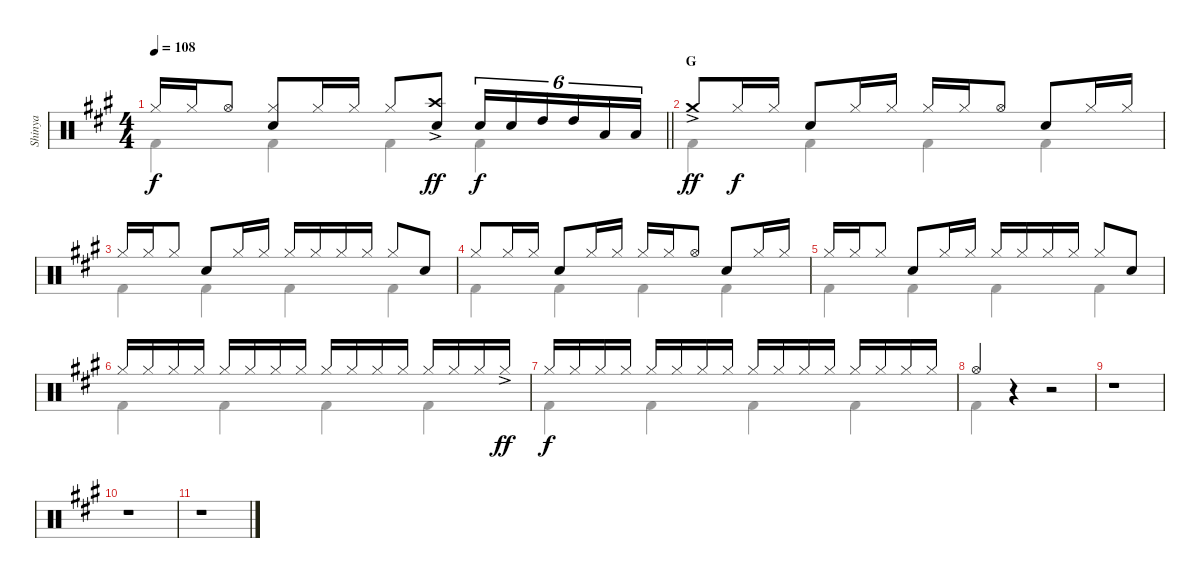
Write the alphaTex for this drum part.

\track ("Shinya" "Shinya") {instrument percussion}
\staff {score}
\articulation defaults
\voice
\ts (4 4)
\tempo 108
\clef neutral
\barLineRight lightlight
\ks f#minor "Hi-Hat (closed)".16{dy f} "Hi-Hat (closed)".16 "Hi-Hat (open)".8
("Hi-Hat (closed)" "Snare (hit) 2").8 "Hi-Hat (closed)".16 "Hi-Hat (closed)".16 "Hi-Hat (closed)".8 ("Crash high (hit)"{ac} "Snare (hit) 2").8{dy ff} "Snare (hit) 2".16{tu (6 4) dy f} "Snare (hit) 2".16{tu (6 4)} "High Tom (hit)".16{tu (6 4)} "High Tom (hit)".16{tu (6 4)} "Low Tom (hit)".16{tu (6 4)} "Low Tom (hit)".16{tu (6 4)} |
\section ("" "G")
"Crash medium (hit)"{ac}.8{dy ff volume 10} "Hi-Hat (closed)".16{dy f} "Hi-Hat (closed)".16 "Snare (hit) 2".8 "Hi-Hat (closed)".16 "Hi-Hat (closed)".16 "Hi-Hat (closed)".16 "Hi-Hat (closed)".16 "Hi-Hat (open)".8 "Snare (hit) 2".8 "Hi-Hat (closed)".16 "Hi-Hat (closed)".16 |
"Hi-Hat (closed)".16 "Hi-Hat (closed)".16 "Hi-Hat (closed)".8 "Snare (hit) 2".8 "Hi-Hat (closed)".16 "Hi-Hat (closed)".16 "Hi-Hat (closed)".16 "Hi-Hat (closed)".16 "Hi-Hat (closed)".16 "Hi-Hat (closed)".16 "Hi-Hat (closed)".8 "Snare (hit) 2".8 |
"Hi-Hat (closed)".8 "Hi-Hat (closed)".16 "Hi-Hat (closed)".16 "Snare (hit) 2".8 "Hi-Hat (closed)".16 "Hi-Hat (closed)".16 "Hi-Hat (closed)".16 "Hi-Hat (closed)".16 "Hi-Hat (open)".8 "Snare (hit) 2".8 "Hi-Hat (closed)".16 "Hi-Hat (closed)".16 |
"Hi-Hat (closed)".16 "Hi-Hat (closed)".16 "Hi-Hat (closed)".8 "Snare (hit) 2".8 "Hi-Hat (closed)".16 "Hi-Hat (closed)".16 "Hi-Hat (closed)".16 "Hi-Hat (closed)".16 "Hi-Hat (closed)".16 "Hi-Hat (closed)".16 "Hi-Hat (closed)".8 "Snare (hit) 2".8 |
"Hi-Hat (closed)".16 "Hi-Hat (closed)".16 "Hi-Hat (closed)".16 "Hi-Hat (closed)".16 "Hi-Hat (closed)".16 "Hi-Hat (closed)".16 "Hi-Hat (closed)".16 "Hi-Hat (closed)".16 "Hi-Hat (closed)".16 "Hi-Hat (closed)".16 "Hi-Hat (closed)".16 "Hi-Hat (closed)".16 "Hi-Hat (closed)".16 "Hi-Hat (closed)".16 "Hi-Hat (closed)".16 "Hi-Hat (closed)"{ac}.16{dy ff} |
"Hi-Hat (closed)".16{dy f} "Hi-Hat (closed)".16 "Hi-Hat (closed)".16 "Hi-Hat (closed)".16 "Hi-Hat (closed)".16 "Hi-Hat (closed)".16 "Hi-Hat (closed)".16 "Hi-Hat (closed)".16 "Hi-Hat (closed)".16 "Hi-Hat (closed)".16 "Hi-Hat (closed)".16 "Hi-Hat (closed)".16 "Hi-Hat (closed)".16 "Hi-Hat (closed)".16 "Hi-Hat (closed)".16 "Hi-Hat (closed)".16 |
"Hi-Hat (open)".4 r.4 r.2 |
r.1 |
r.1 |
r.1
\voice
\clef neutral
\ottava regular
\simile none
\barLineRight lightlight
\ks f#minor "Kick (hit) 2".4{dy f} "Kick (hit) 2".4 "Kick (hit) 2".4 "Kick (hit) 2".4
|
"Kick (hit) 2".4 "Kick (hit) 2".4 "Kick (hit) 2".4 "Kick (hit) 2".4 |
"Kick (hit) 2".4 "Kick (hit) 2".4 "Kick (hit) 2".4 "Kick (hit) 2".4 |
"Kick (hit) 2".4 "Kick (hit) 2".4 "Kick (hit) 2".4 "Kick (hit) 2".4 |
"Kick (hit) 2".4 "Kick (hit) 2".4 "Kick (hit) 2".4 "Kick (hit) 2".4 |
"Kick (hit) 2".4 "Kick (hit) 2".4 "Kick (hit) 2".4 "Kick (hit) 2".4 |
"Kick (hit) 2".4 "Kick (hit) 2".4 "Kick (hit) 2".4 "Kick (hit) 2".4 |
"Kick (hit) 2".4 r.4 r.2 |
r.1 |
r.1 |
r.1
